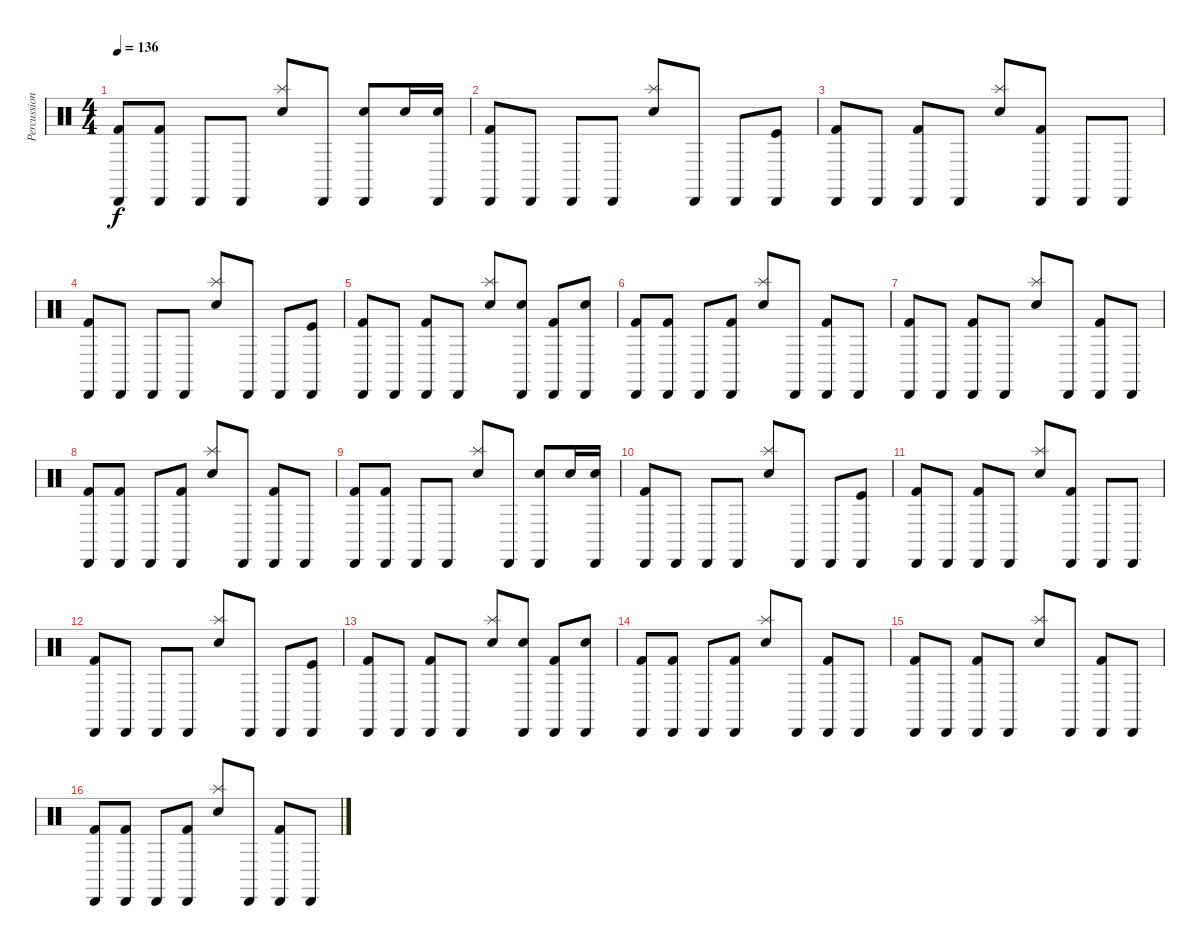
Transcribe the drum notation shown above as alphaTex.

\track ("Percussion 2" "Percussion") {instrument percussion}
\staff {score}
\articulation defaults
\ts (4 4)
\tempo 136
\clef neutral
\ks c
("Kick (hit) 2" "Cabasa (hit)").8{dy f} ("Kick (hit) 2" "Cabasa (hit)").8 "Cabasa (hit)".8 "Cabasa (hit)".8 ("Snare (hit) 2" "Splash (hit)").8 "Cabasa (hit)".8 ("Snare (hit) 2" "Cabasa (hit)").8 "Snare (hit) 2".16 ("Snare (hit) 2" "Cabasa (hit)").16 |
("Kick (hit) 2" "Cabasa (hit)").8 "Cabasa (hit)".8 "Cabasa (hit)".8 "Cabasa (hit)".8 ("Snare (hit) 2" "Splash (hit)").8 "Cabasa (hit)".8 "Cabasa (hit)".8 ("Kick (hit)" "Cabasa (hit)").8 |
("Kick (hit) 2" "Cabasa (hit)").8 "Cabasa (hit)".8 ("Kick (hit) 2" "Cabasa (hit)").8 "Cabasa (hit)".8 ("Snare (hit) 2" "Splash (hit)").8 ("Kick (hit) 2" "Cabasa (hit)").8 "Cabasa (hit)".8 "Cabasa (hit)".8 |
("Kick (hit) 2" "Cabasa (hit)").8 "Cabasa (hit)".8 "Cabasa (hit)".8 "Cabasa (hit)".8 ("Snare (hit) 2" "Splash (hit)").8 "Cabasa (hit)".8 "Cabasa (hit)".8 ("Kick (hit)" "Cabasa (hit)").8 |
("Kick (hit) 2" "Cabasa (hit)").8 "Cabasa (hit)".8 ("Kick (hit) 2" "Cabasa (hit)").8 "Cabasa (hit)".8 ("Snare (hit) 2" "Splash (hit)").8 ("Snare (hit) 2" "Cabasa (hit)").8 ("Kick (hit) 2" "Cabasa (hit)").8 ("Snare (hit) 2" "Cabasa (hit)").8 |
("Kick (hit) 2" "Cabasa (hit)").8 ("Kick (hit) 2" "Cabasa (hit)").8 "Cabasa (hit)".8 ("Kick (hit) 2" "Cabasa (hit)").8 ("Snare (hit) 2" "Splash (hit)").8 "Cabasa (hit)".8 ("Kick (hit) 2" "Cabasa (hit)").8 "Cabasa (hit)".8 |
("Kick (hit) 2" "Cabasa (hit)").8 "Cabasa (hit)".8 ("Kick (hit) 2" "Cabasa (hit)").8 "Cabasa (hit)".8 ("Snare (hit) 2" "Splash (hit)").8 "Cabasa (hit)".8 ("Kick (hit) 2" "Cabasa (hit)").8 "Cabasa (hit)".8 |
("Kick (hit) 2" "Cabasa (hit)").8 ("Kick (hit) 2" "Cabasa (hit)").8 "Cabasa (hit)".8 ("Kick (hit) 2" "Cabasa (hit)").8 ("Snare (hit) 2" "Splash (hit)").8 "Cabasa (hit)".8 ("Kick (hit) 2" "Cabasa (hit)").8 "Cabasa (hit)".8 |
("Kick (hit) 2" "Cabasa (hit)").8 ("Kick (hit) 2" "Cabasa (hit)").8 "Cabasa (hit)".8 "Cabasa (hit)".8 ("Snare (hit) 2" "Splash (hit)").8 "Cabasa (hit)".8 ("Snare (hit) 2" "Cabasa (hit)").8 "Snare (hit) 2".16 ("Snare (hit) 2" "Cabasa (hit)").16 |
("Kick (hit) 2" "Cabasa (hit)").8 "Cabasa (hit)".8 "Cabasa (hit)".8 "Cabasa (hit)".8 ("Snare (hit) 2" "Splash (hit)").8 "Cabasa (hit)".8 "Cabasa (hit)".8 ("Kick (hit)" "Cabasa (hit)").8 |
("Kick (hit) 2" "Cabasa (hit)").8 "Cabasa (hit)".8 ("Kick (hit) 2" "Cabasa (hit)").8 "Cabasa (hit)".8 ("Snare (hit) 2" "Splash (hit)").8 ("Kick (hit) 2" "Cabasa (hit)").8 "Cabasa (hit)".8 "Cabasa (hit)".8 |
("Kick (hit) 2" "Cabasa (hit)").8 "Cabasa (hit)".8 "Cabasa (hit)".8 "Cabasa (hit)".8 ("Snare (hit) 2" "Splash (hit)").8 "Cabasa (hit)".8 "Cabasa (hit)".8 ("Kick (hit)" "Cabasa (hit)").8 |
("Kick (hit) 2" "Cabasa (hit)").8 "Cabasa (hit)".8 ("Kick (hit) 2" "Cabasa (hit)").8 "Cabasa (hit)".8 ("Snare (hit) 2" "Splash (hit)").8 ("Snare (hit) 2" "Cabasa (hit)").8 ("Kick (hit) 2" "Cabasa (hit)").8 ("Snare (hit) 2" "Cabasa (hit)").8 |
("Kick (hit) 2" "Cabasa (hit)").8 ("Kick (hit) 2" "Cabasa (hit)").8 "Cabasa (hit)".8 ("Kick (hit) 2" "Cabasa (hit)").8 ("Snare (hit) 2" "Splash (hit)").8 "Cabasa (hit)".8 ("Kick (hit) 2" "Cabasa (hit)").8 "Cabasa (hit)".8 |
("Kick (hit) 2" "Cabasa (hit)").8 "Cabasa (hit)".8 ("Kick (hit) 2" "Cabasa (hit)").8 "Cabasa (hit)".8 ("Snare (hit) 2" "Splash (hit)").8 "Cabasa (hit)".8 ("Kick (hit) 2" "Cabasa (hit)").8 "Cabasa (hit)".8 |
("Kick (hit) 2" "Cabasa (hit)").8 ("Kick (hit) 2" "Cabasa (hit)").8 "Cabasa (hit)".8 ("Kick (hit) 2" "Cabasa (hit)").8 ("Snare (hit) 2" "Splash (hit)").8 "Cabasa (hit)".8 ("Kick (hit) 2" "Cabasa (hit)").8 "Cabasa (hit)".8
